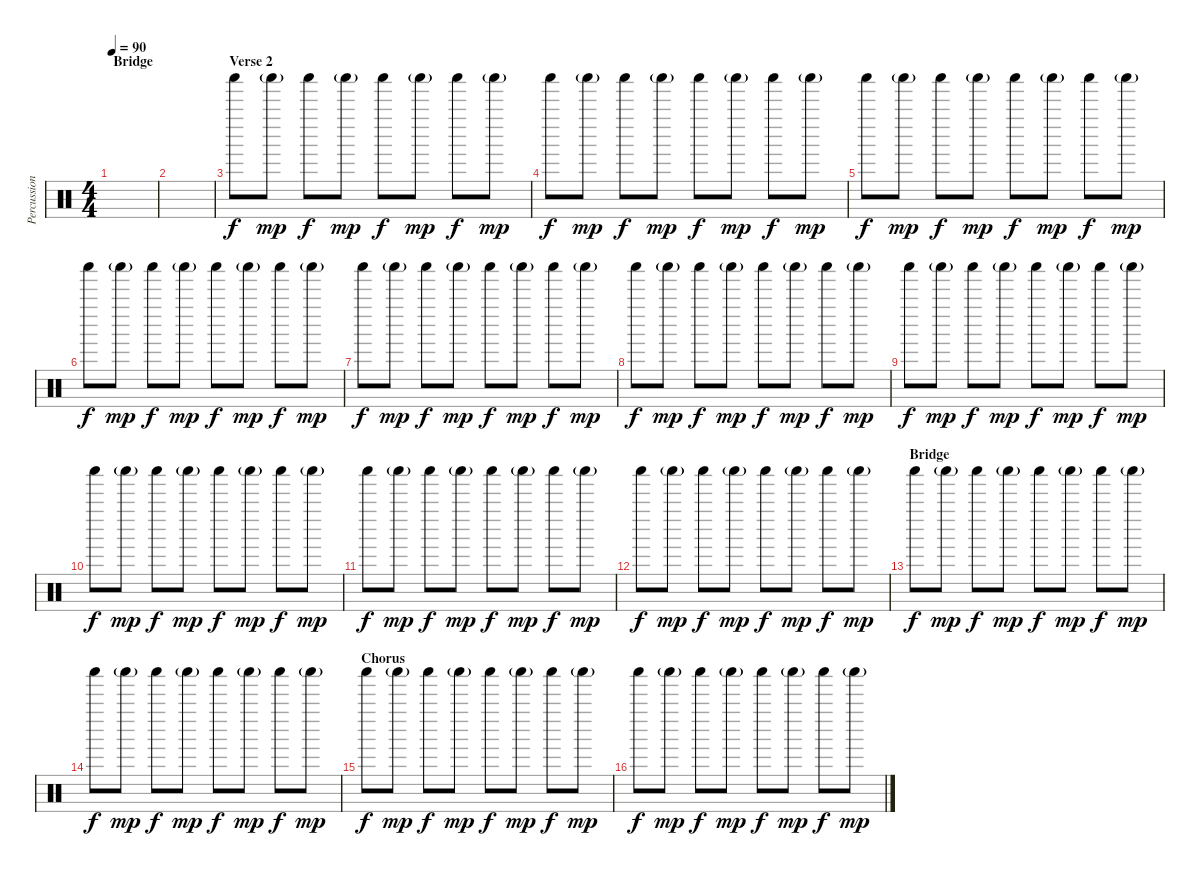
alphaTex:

\track ("Percussion 2" "Percussion") {instrument percussion}
\staff {score}
\articulation defaults
\ts (4 4)
\section ("" "Bridge")
\tempo 90
\clef neutral
\ks c
|
|
\section ("" "Verse 2")
"Shaker (hit)".8 "Shaker (hit)"{g}.8{dy mp} "Shaker (hit)".8{dy f} "Shaker (hit)"{g}.8{dy mp} "Shaker (hit)".8{dy f} "Shaker (hit)"{g}.8{dy mp} "Shaker (hit)".8{dy f} "Shaker (hit)"{g}.8{dy mp} |
"Shaker (hit)".8{dy f} "Shaker (hit)"{g}.8{dy mp} "Shaker (hit)".8{dy f} "Shaker (hit)"{g}.8{dy mp} "Shaker (hit)".8{dy f} "Shaker (hit)"{g}.8{dy mp} "Shaker (hit)".8{dy f} "Shaker (hit)"{g}.8{dy mp} |
"Shaker (hit)".8{dy f} "Shaker (hit)"{g}.8{dy mp} "Shaker (hit)".8{dy f} "Shaker (hit)"{g}.8{dy mp} "Shaker (hit)".8{dy f} "Shaker (hit)"{g}.8{dy mp} "Shaker (hit)".8{dy f} "Shaker (hit)"{g}.8{dy mp} |
"Shaker (hit)".8{dy f} "Shaker (hit)"{g}.8{dy mp} "Shaker (hit)".8{dy f} "Shaker (hit)"{g}.8{dy mp} "Shaker (hit)".8{dy f} "Shaker (hit)"{g}.8{dy mp} "Shaker (hit)".8{dy f} "Shaker (hit)"{g}.8{dy mp} |
"Shaker (hit)".8{dy f} "Shaker (hit)"{g}.8{dy mp} "Shaker (hit)".8{dy f} "Shaker (hit)"{g}.8{dy mp} "Shaker (hit)".8{dy f} "Shaker (hit)"{g}.8{dy mp} "Shaker (hit)".8{dy f} "Shaker (hit)"{g}.8{dy mp} |
"Shaker (hit)".8{dy f} "Shaker (hit)"{g}.8{dy mp} "Shaker (hit)".8{dy f} "Shaker (hit)"{g}.8{dy mp} "Shaker (hit)".8{dy f} "Shaker (hit)"{g}.8{dy mp} "Shaker (hit)".8{dy f} "Shaker (hit)"{g}.8{dy mp} |
"Shaker (hit)".8{dy f} "Shaker (hit)"{g}.8{dy mp} "Shaker (hit)".8{dy f} "Shaker (hit)"{g}.8{dy mp} "Shaker (hit)".8{dy f} "Shaker (hit)"{g}.8{dy mp} "Shaker (hit)".8{dy f} "Shaker (hit)"{g}.8{dy mp} |
"Shaker (hit)".8{dy f} "Shaker (hit)"{g}.8{dy mp} "Shaker (hit)".8{dy f} "Shaker (hit)"{g}.8{dy mp} "Shaker (hit)".8{dy f} "Shaker (hit)"{g}.8{dy mp} "Shaker (hit)".8{dy f} "Shaker (hit)"{g}.8{dy mp} |
"Shaker (hit)".8{dy f} "Shaker (hit)"{g}.8{dy mp} "Shaker (hit)".8{dy f} "Shaker (hit)"{g}.8{dy mp} "Shaker (hit)".8{dy f} "Shaker (hit)"{g}.8{dy mp} "Shaker (hit)".8{dy f} "Shaker (hit)"{g}.8{dy mp} |
"Shaker (hit)".8{dy f} "Shaker (hit)"{g}.8{dy mp} "Shaker (hit)".8{dy f} "Shaker (hit)"{g}.8{dy mp} "Shaker (hit)".8{dy f} "Shaker (hit)"{g}.8{dy mp} "Shaker (hit)".8{dy f} "Shaker (hit)"{g}.8{dy mp} |
\section ("" "Bridge")
"Shaker (hit)".8{dy f} "Shaker (hit)"{g}.8{dy mp} "Shaker (hit)".8{dy f} "Shaker (hit)"{g}.8{dy mp} "Shaker (hit)".8{dy f} "Shaker (hit)"{g}.8{dy mp} "Shaker (hit)".8{dy f} "Shaker (hit)"{g}.8{dy mp} |
"Shaker (hit)".8{dy f} "Shaker (hit)"{g}.8{dy mp} "Shaker (hit)".8{dy f} "Shaker (hit)"{g}.8{dy mp} "Shaker (hit)".8{dy f} "Shaker (hit)"{g}.8{dy mp} "Shaker (hit)".8{dy f} "Shaker (hit)"{g}.8{dy mp} |
\section ("" "Chorus")
"Shaker (hit)".8{dy f} "Shaker (hit)"{g}.8{dy mp} "Shaker (hit)".8{dy f} "Shaker (hit)"{g}.8{dy mp} "Shaker (hit)".8{dy f} "Shaker (hit)"{g}.8{dy mp} "Shaker (hit)".8{dy f} "Shaker (hit)"{g}.8{dy mp} |
"Shaker (hit)".8{dy f} "Shaker (hit)"{g}.8{dy mp} "Shaker (hit)".8{dy f} "Shaker (hit)"{g}.8{dy mp} "Shaker (hit)".8{dy f} "Shaker (hit)"{g}.8{dy mp} "Shaker (hit)".8{dy f} "Shaker (hit)"{g}.8{dy mp}
